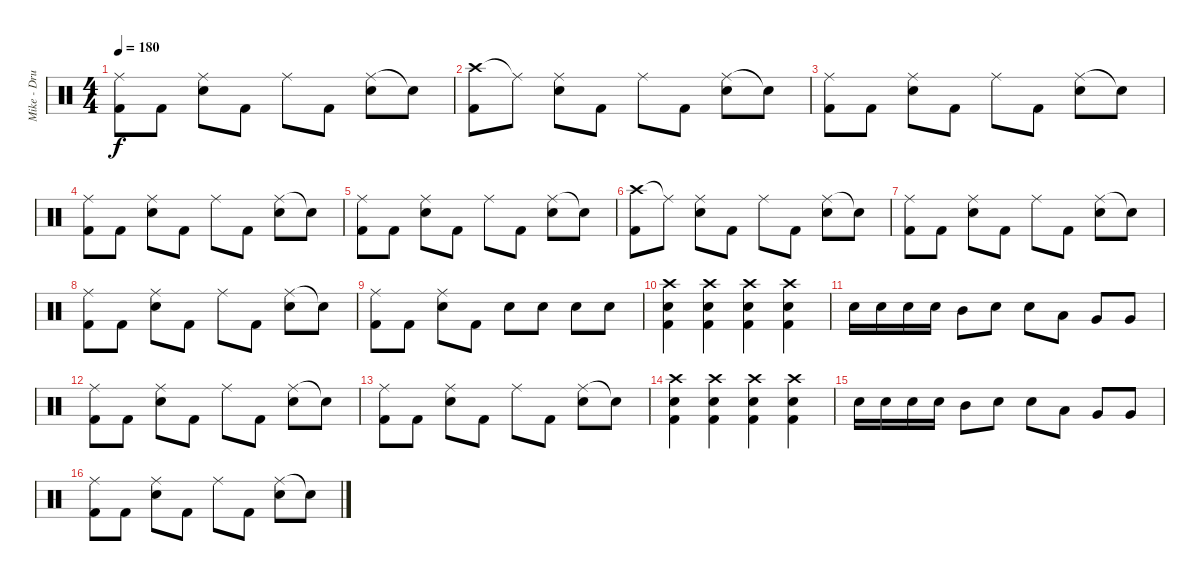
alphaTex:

\track ("Mike - Drums" "Mike - Dru") {instrument percussion}
\staff {score}
\articulation defaults
\ts (4 4)
\tempo 180
\clef neutral
\ks c
("Ride (middle)" "Kick (hit) 2").8{dy f} "Kick (hit) 2".8 ("Ride (middle)" "Snare (hit) 2").8 "Kick (hit) 2".8 "Ride (middle)".8 "Kick (hit) 2".8 ("Ride (middle)" "Snare (hit) 2").8 "Snare (hit)"{t}.8 |
("Crash high (hit)" "Kick (hit) 2").8 "Ride (middle)"{t}.8 ("Ride (middle)" "Snare (hit) 2").8 "Kick (hit) 2".8 "Ride (middle)".8 "Kick (hit) 2".8 ("Ride (middle)" "Snare (hit) 2").8 "Snare (hit)"{t}.8 |
("Ride (middle)" "Kick (hit) 2").8 "Kick (hit) 2".8 ("Ride (middle)" "Snare (hit) 2").8 "Kick (hit) 2".8 "Ride (middle)".8 "Kick (hit) 2".8 ("Ride (middle)" "Snare (hit) 2").8 "Snare (hit)"{t}.8 |
("Ride (middle)" "Kick (hit) 2").8 "Kick (hit) 2".8 ("Ride (middle)" "Snare (hit) 2").8 "Kick (hit) 2".8 "Ride (middle)".8 "Kick (hit) 2".8 ("Ride (middle)" "Snare (hit) 2").8 "Snare (hit)"{t}.8 |
("Ride (middle)" "Kick (hit) 2").8 "Kick (hit) 2".8 ("Ride (middle)" "Snare (hit) 2").8 "Kick (hit) 2".8 "Ride (middle)".8 "Kick (hit) 2".8 ("Ride (middle)" "Snare (hit) 2").8 "Snare (hit)"{t}.8 |
("Crash high (hit)" "Kick (hit) 2").8 "Ride (middle)"{t}.8 ("Ride (middle)" "Snare (hit) 2").8 "Kick (hit) 2".8 "Ride (middle)".8 "Kick (hit) 2".8 ("Ride (middle)" "Snare (hit) 2").8 "Snare (hit)"{t}.8 |
("Ride (middle)" "Kick (hit) 2").8 "Kick (hit) 2".8 ("Ride (middle)" "Snare (hit) 2").8 "Kick (hit) 2".8 "Ride (middle)".8 "Kick (hit) 2".8 ("Ride (middle)" "Snare (hit) 2").8 "Snare (hit)"{t}.8 |
("Ride (middle)" "Kick (hit) 2").8 "Kick (hit) 2".8 ("Ride (middle)" "Snare (hit) 2").8 "Kick (hit) 2".8 "Ride (middle)".8 "Kick (hit) 2".8 ("Ride (middle)" "Snare (hit) 2").8 "Snare (hit)"{t}.8 |
("Ride (middle)" "Kick (hit) 2").8 "Kick (hit) 2".8 ("Ride (middle)" "Snare (hit) 2").8 "Kick (hit) 2".8 "Snare (hit) 2".8 "Snare (hit) 2".8 "Snare (hit) 2".8 "Snare (hit) 2".8 |
("Crash high (hit)" "Snare (hit) 2" "Kick (hit) 2").4 ("Crash high (hit)" "Snare (hit) 2" "Kick (hit) 2").4 ("Crash high (hit)" "Snare (hit) 2" "Kick (hit) 2").4 ("Crash high (hit)" "Snare (hit) 2" "Kick (hit) 2").4 |
"Snare (hit) 2".16 "Snare (hit) 2".16 "Snare (hit) 2".16 "Snare (hit) 2".16 "Mid Tom (hit)".8 "Snare (hit) 2".8 "Snare (hit) 2".8 "Low Tom (hit)".8 "Very Low Tom (hit)".8 "Very Low Tom (hit)".8 |
("Ride (middle)" "Kick (hit) 2").8 "Kick (hit) 2".8 ("Ride (middle)" "Snare (hit) 2").8 "Kick (hit) 2".8 "Ride (middle)".8 "Kick (hit) 2".8 ("Ride (middle)" "Snare (hit) 2").8 "Snare (hit)"{t}.8 |
("Ride (middle)" "Kick (hit) 2").8 "Kick (hit) 2".8 ("Ride (middle)" "Snare (hit) 2").8 "Kick (hit) 2".8 "Ride (middle)".8 "Kick (hit) 2".8 ("Ride (middle)" "Snare (hit) 2").8 "Snare (hit)"{t}.8 |
("Crash high (hit)" "Snare (hit) 2" "Kick (hit) 2").4 ("Crash high (hit)" "Snare (hit) 2" "Kick (hit) 2").4 ("Crash high (hit)" "Snare (hit) 2" "Kick (hit) 2").4 ("Crash high (hit)" "Snare (hit) 2" "Kick (hit) 2").4 |
"Snare (hit) 2".16 "Snare (hit) 2".16 "Snare (hit) 2".16 "Snare (hit) 2".16 "Mid Tom (hit)".8 "Snare (hit) 2".8 "Snare (hit) 2".8 "Low Tom (hit)".8 "Very Low Tom (hit)".8 "Very Low Tom (hit)".8 |
("Ride (middle)" "Kick (hit) 2").8 "Kick (hit) 2".8 ("Ride (middle)" "Snare (hit) 2").8 "Kick (hit) 2".8 "Ride (middle)".8 "Kick (hit) 2".8 ("Ride (middle)" "Snare (hit) 2").8 "Snare (hit)"{t}.8
